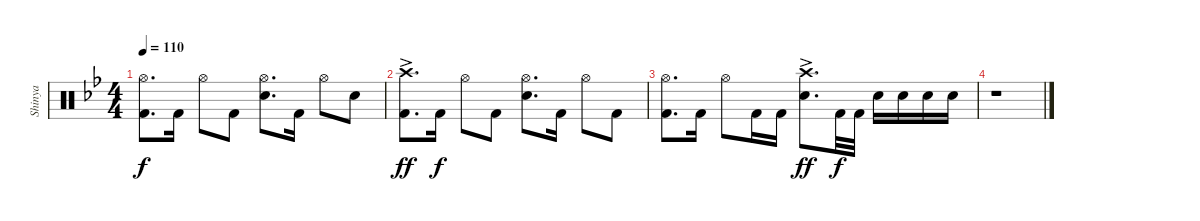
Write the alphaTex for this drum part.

\track ("Shinya" "Shinya") {instrument percussion}
\staff {score}
\articulation defaults
\ts (4 4)
\tempo 110
\clef neutral
\ks bb
("Hi-Hat (open)" "Kick (hit) 2").8{d dy f} "Kick (hit) 2".16 "Hi-Hat (open)".8 "Kick (hit) 2".8 ("Hi-Hat (open)" "Snare (hit) 2").8{d} "Kick (hit) 2".16 "Hi-Hat (open)".8 "Snare (hit) 2".8 |
("Crash high (hit)" "Kick (hit) 2"{ac}).8{d dy ff} "Kick (hit) 2".16{dy f} "Hi-Hat (open)".8 "Kick (hit) 2".8 ("Hi-Hat (open)" "Snare (hit) 2").8{d} "Kick (hit) 2".16 "Hi-Hat (open)".8 "Kick (hit) 2".8 |
("Hi-Hat (open)" "Kick (hit) 2").8{d} "Kick (hit) 2".16 "Hi-Hat (open)".8 "Kick (hit) 2".16 "Kick (hit) 2".16 ("Crash high (hit)" "Snare (hit) 2"{ac}).8{d dy ff} "Kick (hit) 2".32{dy f} "Kick (hit) 2".32 "Snare (hit) 2".16 "Snare (hit) 2".16 "Snare (hit) 2".16 "Snare (hit) 2".16 |
r.1
